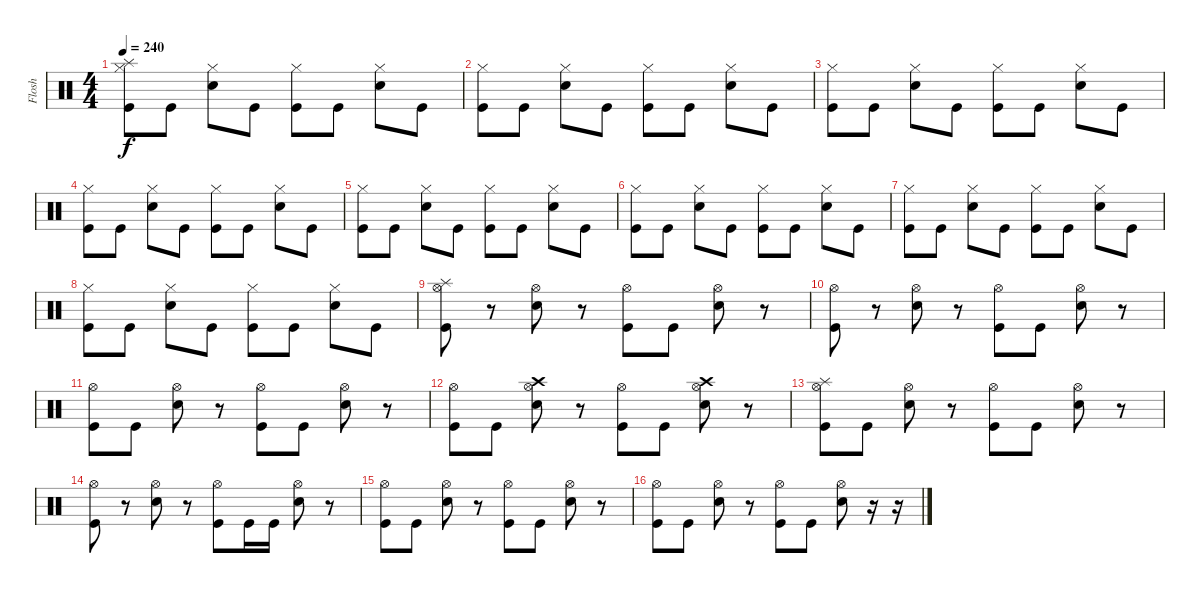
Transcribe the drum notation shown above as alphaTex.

\track ("Flosh" "Flosh") {instrument percussion}
\staff {score}
\articulation defaults
\ts (4 4)
\tempo 240
\clef neutral
\ks c
("Splash (hit)" "Hi-Hat (closed)" "Kick (hit)").8{dy f} "Kick (hit)".8 ("Hi-Hat (closed)" "Snare (hit) 2").8 "Kick (hit)".8 ("Hi-Hat (closed)" "Kick (hit)").8 "Kick (hit)".8 ("Hi-Hat (closed)" "Snare (hit) 2").8 "Kick (hit)".8 |
("Hi-Hat (closed)" "Kick (hit)").8 "Kick (hit)".8 ("Hi-Hat (closed)" "Snare (hit) 2").8 "Kick (hit)".8 ("Hi-Hat (closed)" "Kick (hit)").8 "Kick (hit)".8 ("Hi-Hat (closed)" "Snare (hit) 2").8 "Kick (hit)".8 |
("Hi-Hat (closed)" "Kick (hit)").8 "Kick (hit)".8 ("Hi-Hat (closed)" "Snare (hit) 2").8 "Kick (hit)".8 ("Hi-Hat (closed)" "Kick (hit)").8 "Kick (hit)".8 ("Hi-Hat (closed)" "Snare (hit) 2").8 "Kick (hit)".8 |
("Hi-Hat (closed)" "Kick (hit)").8 "Kick (hit)".8 ("Hi-Hat (closed)" "Snare (hit) 2").8 "Kick (hit)".8 ("Hi-Hat (closed)" "Kick (hit)").8 "Kick (hit)".8 ("Hi-Hat (closed)" "Snare (hit) 2").8 "Kick (hit)".8 |
("Hi-Hat (closed)" "Kick (hit)").8 "Kick (hit)".8 ("Hi-Hat (closed)" "Snare (hit) 2").8 "Kick (hit)".8 ("Hi-Hat (closed)" "Kick (hit)").8 "Kick (hit)".8 ("Hi-Hat (closed)" "Snare (hit) 2").8 "Kick (hit)".8 |
("Hi-Hat (closed)" "Kick (hit)").8 "Kick (hit)".8 ("Hi-Hat (closed)" "Snare (hit) 2").8 "Kick (hit)".8 ("Hi-Hat (closed)" "Kick (hit)").8 "Kick (hit)".8 ("Hi-Hat (closed)" "Snare (hit) 2").8 "Kick (hit)".8 |
("Hi-Hat (closed)" "Kick (hit)").8 "Kick (hit)".8 ("Hi-Hat (closed)" "Snare (hit) 2").8 "Kick (hit)".8 ("Hi-Hat (closed)" "Kick (hit)").8 "Kick (hit)".8 ("Hi-Hat (closed)" "Snare (hit) 2").8 "Kick (hit)".8 |
("Hi-Hat (closed)" "Kick (hit)").8 "Kick (hit)".8 ("Hi-Hat (closed)" "Snare (hit) 2").8 "Kick (hit)".8 ("Hi-Hat (closed)" "Kick (hit)").8 "Kick (hit)".8 ("Hi-Hat (closed)" "Snare (hit) 2").8 "Kick (hit)".8 |
("Splash (hit)" "Hi-Hat (open)" "Kick (hit)").8 r.8 ("Hi-Hat (open)" "Snare (hit) 2").8 r.8 ("Hi-Hat (open)" "Kick (hit)").8 "Kick (hit)".8 ("Hi-Hat (open)" "Snare (hit) 2").8 r.8 |
("Hi-Hat (open)" "Kick (hit)").8 r.8 ("Hi-Hat (open)" "Snare (hit) 2").8 r.8 ("Hi-Hat (open)" "Kick (hit)").8 "Kick (hit)".8 ("Hi-Hat (open)" "Snare (hit) 2").8 r.8 |
("Hi-Hat (open)" "Kick (hit)").8 "Kick (hit)".8 ("Hi-Hat (open)" "Snare (hit) 2").8 r.8 ("Hi-Hat (open)" "Kick (hit)").8 "Kick (hit)".8 ("Hi-Hat (open)" "Snare (hit) 2").8 r.8 |
("Hi-Hat (open)" "Kick (hit)").8 "Kick (hit)".8 ("Crash high (hit)" "Hi-Hat (open)" "Snare (hit) 2").8 r.8 ("Hi-Hat (open)" "Kick (hit)").8 "Kick (hit)".8 ("Crash high (hit)" "Hi-Hat (open)" "Snare (hit) 2").8 r.8 |
("Splash (hit)" "Hi-Hat (open)" "Kick (hit)").8 "Kick (hit)".8 ("Hi-Hat (open)" "Snare (hit) 2").8 r.8 ("Hi-Hat (open)" "Kick (hit)").8 "Kick (hit)".8 ("Hi-Hat (open)" "Snare (hit) 2").8 r.8 |
("Hi-Hat (open)" "Kick (hit)").8 r.8 ("Hi-Hat (open)" "Snare (hit) 2").8 r.8 ("Hi-Hat (open)" "Kick (hit)").8 "Kick (hit)".16 "Kick (hit)".16 ("Hi-Hat (open)" "Snare (hit) 2").8 r.8 |
("Hi-Hat (open)" "Kick (hit)").8 "Kick (hit)".8 ("Hi-Hat (open)" "Snare (hit) 2").8 r.8 ("Hi-Hat (open)" "Kick (hit)").8 "Kick (hit)".8 ("Hi-Hat (open)" "Snare (hit) 2").8 r.8 |
("Hi-Hat (open)" "Kick (hit)").8 "Kick (hit)".8 ("Hi-Hat (open)" "Snare (hit) 2").8 r.8 ("Hi-Hat (open)" "Kick (hit)").8 "Kick (hit)".8 ("Hi-Hat (open)" "Snare (hit) 2").8 r.16 r.16
